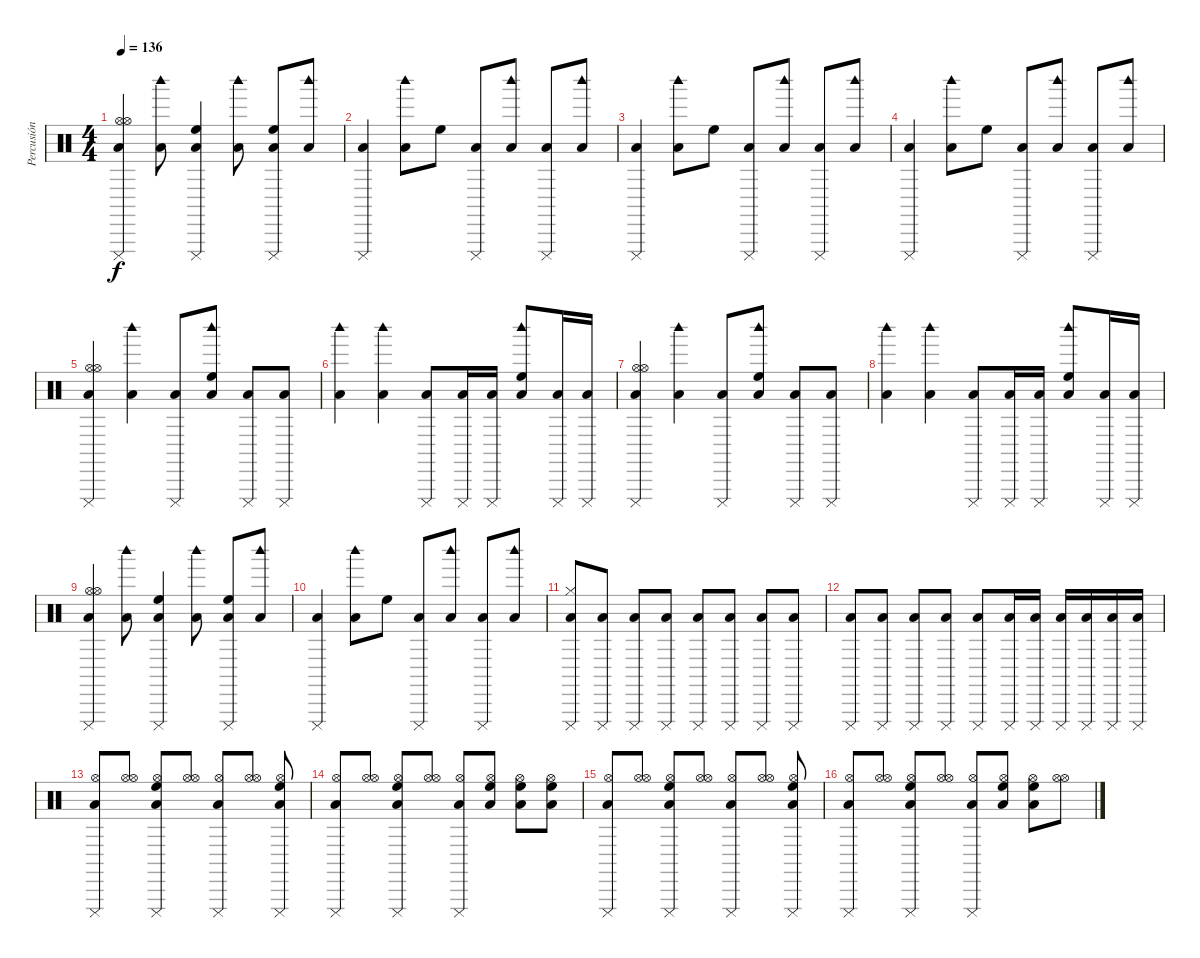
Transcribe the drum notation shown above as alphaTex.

\track ("Percusión" "Percusión") {instrument percussion}
\staff {score}
\articulation defaults
\ts (4 4)
\tempo 136
\clef neutral
\ks c
("Cuica (mute)" "Hi-Hat (open)" "Low Tom (hit)" "Hi-Hat (open)").4{dy f} ("Woodblock high (hit)" "Low Tom (hit)").8 ("Cuica (mute)" "Low Tom (hit)" "High Floor Tom (hit)").4 ("Woodblock high (hit)" "Low Tom (hit)").8 ("Cuica (mute)" "Low Tom (hit)" "High Floor Tom (hit)").8 ("Woodblock high (hit)" "Low Tom (hit)").8 |
("Cuica (mute)" "Low Tom (hit)").4 ("Woodblock high (hit)" "Low Tom (hit)").8 "High Floor Tom (hit)".8 ("Cuica (mute)" "Low Tom (hit)").8 ("Woodblock high (hit)" "Low Tom (hit)").8 ("Cuica (mute)" "Low Tom (hit)").8 ("Woodblock high (hit)" "Low Tom (hit)").8 |
("Cuica (mute)" "Low Tom (hit)").4 ("Woodblock high (hit)" "Low Tom (hit)").8 "High Floor Tom (hit)".8 ("Cuica (mute)" "Low Tom (hit)").8 ("Woodblock high (hit)" "Low Tom (hit)").8 ("Cuica (mute)" "Low Tom (hit)").8 ("Woodblock high (hit)" "Low Tom (hit)").8 |
("Cuica (mute)" "Low Tom (hit)").4 ("Woodblock high (hit)" "Low Tom (hit)").8 "High Floor Tom (hit)".8 ("Cuica (mute)" "Low Tom (hit)").8 ("Woodblock high (hit)" "Low Tom (hit)").8 ("Cuica (mute)" "Low Tom (hit)").8 ("Woodblock high (hit)" "Low Tom (hit)").8 |
("Cuica (mute)" "Hi-Hat (open)" "Low Tom (hit)" "Hi-Hat (open)").4{volume 13} ("Woodblock high (hit)" "Low Tom (hit)").4 ("Cuica (mute)" "Low Tom (hit)").8 ("Woodblock high (hit)" "Low Tom (hit)" "High Floor Tom (hit)").8 ("Cuica (mute)" "Low Tom (hit)").8 ("Cuica (mute)" "Low Tom (hit)").8 |
("Woodblock high (hit)" "Low Tom (hit)").4 ("Woodblock high (hit)" "Low Tom (hit)").4 ("Cuica (mute)" "Low Tom (hit)").8 ("Cuica (mute)" "Low Tom (hit)").16 ("Cuica (mute)" "Low Tom (hit)").16 ("Woodblock high (hit)" "Low Tom (hit)" "High Floor Tom (hit)").8 ("Cuica (mute)" "Low Tom (hit)").16 ("Cuica (mute)" "Low Tom (hit)").16 |
("Cuica (mute)" "Hi-Hat (open)" "Low Tom (hit)" "Hi-Hat (open)").4{volume 13} ("Woodblock high (hit)" "Low Tom (hit)").4 ("Cuica (mute)" "Low Tom (hit)").8 ("Woodblock high (hit)" "Low Tom (hit)" "High Floor Tom (hit)").8 ("Cuica (mute)" "Low Tom (hit)").8 ("Cuica (mute)" "Low Tom (hit)").8 |
("Woodblock high (hit)" "Low Tom (hit)").4 ("Woodblock high (hit)" "Low Tom (hit)").4 ("Cuica (mute)" "Low Tom (hit)").8 ("Cuica (mute)" "Low Tom (hit)").16 ("Cuica (mute)" "Low Tom (hit)").16 ("Woodblock high (hit)" "Low Tom (hit)" "High Floor Tom (hit)").8 ("Cuica (mute)" "Low Tom (hit)").16 ("Cuica (mute)" "Low Tom (hit)").16 |
("Cuica (mute)" "Hi-Hat (open)" "Low Tom (hit)" "Hi-Hat (open)").4 ("Woodblock high (hit)" "Low Tom (hit)").8 ("Cuica (mute)" "Low Tom (hit)" "High Floor Tom (hit)").4 ("Woodblock high (hit)" "Low Tom (hit)").8 ("Cuica (mute)" "Low Tom (hit)" "High Floor Tom (hit)").8 ("Woodblock high (hit)" "Low Tom (hit)").8 |
("Cuica (mute)" "Low Tom (hit)").4 ("Woodblock high (hit)" "Low Tom (hit)").8 "High Floor Tom (hit)".8 ("Cuica (mute)" "Low Tom (hit)").8 ("Woodblock high (hit)" "Low Tom (hit)").8 ("Cuica (mute)" "Low Tom (hit)").8 ("Woodblock high (hit)" "Low Tom (hit)").8 |
("Cuica (mute)" "Hi-Hat (closed)" "Low Tom (hit)").8 ("Cuica (mute)" "Low Tom (hit)").8 ("Cuica (mute)" "Low Tom (hit)").8 ("Cuica (mute)" "Low Tom (hit)").8 ("Cuica (mute)" "Low Tom (hit)").8 ("Cuica (mute)" "Low Tom (hit)").8 ("Cuica (mute)" "Low Tom (hit)").8 ("Cuica (mute)" "Low Tom (hit)").8 |
("Cuica (mute)" "Low Tom (hit)").8 ("Cuica (mute)" "Low Tom (hit)").8 ("Cuica (mute)" "Low Tom (hit)").8 ("Cuica (mute)" "Low Tom (hit)").8 ("Cuica (mute)" "Low Tom (hit)").8 ("Cuica (mute)" "Low Tom (hit)").16 ("Cuica (mute)" "Low Tom (hit)").16 ("Cuica (mute)" "Low Tom (hit)").16 ("Cuica (mute)" "Low Tom (hit)").16 ("Cuica (mute)" "Low Tom (hit)").16 ("Cuica (mute)" "Low Tom (hit)").16 |
("Cuica (mute)" "Hi-Hat (open)" "Low Tom (hit)").8 ("Hi-Hat (open)" "Hi-Hat (open)").8 ("Cuica (mute)" "Hi-Hat (open)" "Low Tom (hit)" "High Floor Tom (hit)").8 ("Hi-Hat (open)" "Hi-Hat (open)").8 ("Cuica (mute)" "Hi-Hat (open)" "Low Tom (hit)").8 ("Hi-Hat (open)" "Hi-Hat (open)").8 ("Cuica (mute)" "Hi-Hat (open)" "Low Tom (hit)" "High Floor Tom (hit)").8 |
("Cuica (mute)" "Hi-Hat (open)" "Low Tom (hit)").8 ("Hi-Hat (open)" "Hi-Hat (open)").8 ("Cuica (mute)" "Hi-Hat (open)" "Low Tom (hit)" "High Floor Tom (hit)").8 ("Hi-Hat (open)" "Hi-Hat (open)").8 ("Cuica (mute)" "Hi-Hat (open)" "Low Tom (hit)").8 ("Hi-Hat (open)" "Low Tom (hit)" "High Floor Tom (hit)").8 ("Hi-Hat (open)" "Low Tom (hit)" "High Floor Tom (hit)").8 ("Hi-Hat (open)" "Low Tom (hit)" "High Floor Tom (hit)").8 |
("Cuica (mute)" "Hi-Hat (open)" "Low Tom (hit)").8 ("Hi-Hat (open)" "Hi-Hat (open)").8 ("Cuica (mute)" "Hi-Hat (open)" "Low Tom (hit)" "High Floor Tom (hit)").8 ("Hi-Hat (open)" "Hi-Hat (open)").8 ("Cuica (mute)" "Hi-Hat (open)" "Low Tom (hit)").8 ("Hi-Hat (open)" "Hi-Hat (open)").8 ("Cuica (mute)" "Hi-Hat (open)" "Low Tom (hit)" "High Floor Tom (hit)").8 |
("Cuica (mute)" "Hi-Hat (open)" "Low Tom (hit)").8 ("Hi-Hat (open)" "Hi-Hat (open)").8 ("Cuica (mute)" "Hi-Hat (open)" "Low Tom (hit)" "High Floor Tom (hit)").8 ("Hi-Hat (open)" "Hi-Hat (open)").8 ("Cuica (mute)" "Hi-Hat (open)" "Low Tom (hit)").8 ("Hi-Hat (open)" "Low Tom (hit)" "High Floor Tom (hit)").8 ("Hi-Hat (open)" "Low Tom (hit)" "High Floor Tom (hit)").8 ("Hi-Hat (open)" "Hi-Hat (open)").8
